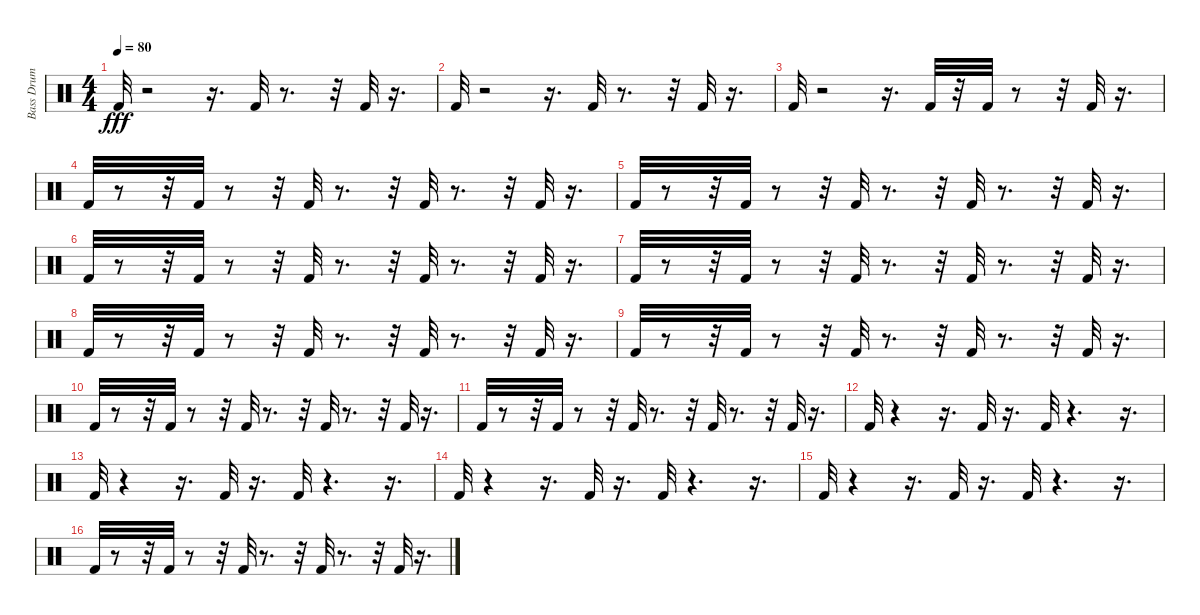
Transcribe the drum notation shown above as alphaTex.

\track ("Bass Drum" "Bass Drum") {instrument percussion}
\staff {score}
\articulation defaults
\ts (4 4)
\tempo 80
\clef neutral
\ks c "Kick (hit) 2".32{dy fff}
r.2 r.16{d} "Kick (hit) 2".32 r.8{d} r.32 "Kick (hit) 2".32 r.16{d} |
"Kick (hit) 2".32 r.2 r.16{d} "Kick (hit) 2".32 r.8{d} r.32 "Kick (hit) 2".32 r.16{d} |
"Kick (hit) 2".32 r.2 r.16{d} "Kick (hit) 2".32 r.32 "Kick (hit) 2".32 r.8 r.32 "Kick (hit) 2".32 r.16{d} |
"Kick (hit) 2".32 r.8 r.32 "Kick (hit) 2".32 r.8 r.32 "Kick (hit) 2".32 r.8{d} r.32 "Kick (hit) 2".32 r.8{d} r.32 "Kick (hit) 2".32 r.16{d} |
"Kick (hit) 2".32 r.8 r.32 "Kick (hit) 2".32 r.8 r.32 "Kick (hit) 2".32 r.8{d} r.32 "Kick (hit) 2".32 r.8{d} r.32 "Kick (hit) 2".32 r.16{d} |
"Kick (hit) 2".32 r.8 r.32 "Kick (hit) 2".32 r.8 r.32 "Kick (hit) 2".32 r.8{d} r.32 "Kick (hit) 2".32 r.8{d} r.32 "Kick (hit) 2".32 r.16{d} |
"Kick (hit) 2".32 r.8 r.32 "Kick (hit) 2".32 r.8 r.32 "Kick (hit) 2".32 r.8{d} r.32 "Kick (hit) 2".32 r.8{d} r.32 "Kick (hit) 2".32 r.16{d} |
"Kick (hit) 2".32 r.8 r.32 "Kick (hit) 2".32 r.8 r.32 "Kick (hit) 2".32 r.8{d} r.32 "Kick (hit) 2".32 r.8{d} r.32 "Kick (hit) 2".32 r.16{d} |
"Kick (hit) 2".32 r.8 r.32 "Kick (hit) 2".32 r.8 r.32 "Kick (hit) 2".32 r.8{d} r.32 "Kick (hit) 2".32 r.8{d} r.32 "Kick (hit) 2".32 r.16{d} |
"Kick (hit) 2".32 r.8 r.32 "Kick (hit) 2".32 r.8 r.32 "Kick (hit) 2".32 r.8{d} r.32 "Kick (hit) 2".32 r.8{d} r.32 "Kick (hit) 2".32 r.16{d} |
"Kick (hit) 2".32 r.8 r.32 "Kick (hit) 2".32 r.8 r.32 "Kick (hit) 2".32 r.8{d} r.32 "Kick (hit) 2".32 r.8{d} r.32 "Kick (hit) 2".32 r.16{d} |
"Kick (hit) 2".32 r.4 r.16{d} "Kick (hit) 2".32 r.16{d} "Kick (hit) 2".32 r.4{d} r.16{d} |
"Kick (hit) 2".32 r.4 r.16{d} "Kick (hit) 2".32 r.16{d} "Kick (hit) 2".32 r.4{d} r.16{d} |
"Kick (hit) 2".32 r.4 r.16{d} "Kick (hit) 2".32 r.16{d} "Kick (hit) 2".32 r.4{d} r.16{d} |
"Kick (hit) 2".32 r.4 r.16{d} "Kick (hit) 2".32 r.16{d} "Kick (hit) 2".32 r.4{d} r.16{d} |
"Kick (hit) 2".32 r.8 r.32 "Kick (hit) 2".32 r.8 r.32 "Kick (hit) 2".32 r.8{d} r.32 "Kick (hit) 2".32 r.8{d} r.32 "Kick (hit) 2".32 r.16{d}
